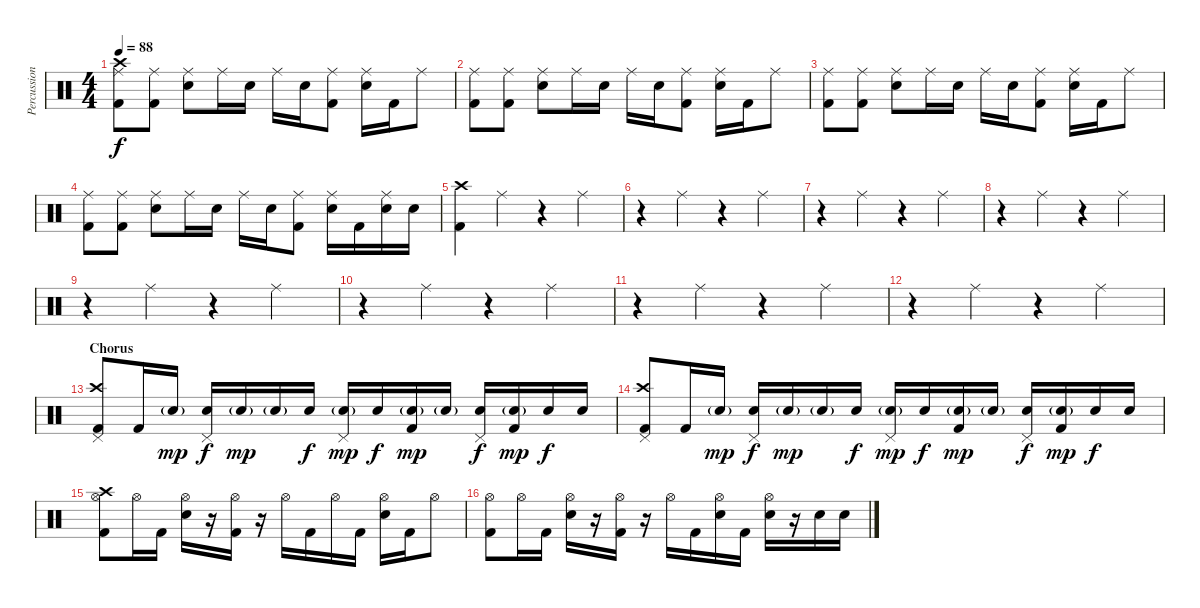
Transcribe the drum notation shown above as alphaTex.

\track ("Percussion" "Percussion") {instrument percussion}
\staff {score}
\articulation defaults
\ts (4 4)
\tempo 88
\clef neutral
\ks c
("Kick (hit) 2" "Ride (middle)" "Crash high (hit)").8{dy f} ("Kick (hit) 2" "Ride (middle)").8 ("Electric Snare (hit)" "Ride (middle)").8 "Ride (middle)".16 "Electric Snare (hit)".16 "Ride (middle)".16 "Electric Snare (hit)".16 ("Kick (hit) 2" "Ride (middle)").8 ("Electric Snare (hit)" "Ride (middle)").16 "Kick (hit) 2".16 "Ride (middle)".8 |
("Kick (hit) 2" "Ride (middle)").8 ("Kick (hit) 2" "Ride (middle)").8 ("Electric Snare (hit)" "Ride (middle)").8 "Ride (middle)".16 "Electric Snare (hit)".16 "Ride (middle)".16 "Electric Snare (hit)".16 ("Kick (hit) 2" "Ride (middle)").8 ("Electric Snare (hit)" "Ride (middle)").16 "Kick (hit) 2".16 "Ride (middle)".8 |
("Kick (hit) 2" "Ride (middle)").8 ("Kick (hit) 2" "Ride (middle)").8 ("Electric Snare (hit)" "Ride (middle)").8 "Ride (middle)".16 "Electric Snare (hit)".16 "Ride (middle)".16 "Electric Snare (hit)".16 ("Kick (hit) 2" "Ride (middle)").8 ("Electric Snare (hit)" "Ride (middle)").16 "Kick (hit) 2".16 "Ride (middle)".8 |
("Kick (hit) 2" "Ride (middle)").8 ("Kick (hit) 2" "Ride (middle)").8 ("Electric Snare (hit)" "Ride (middle)").8 "Ride (middle)".16 "Electric Snare (hit)".16 "Ride (middle)".16 "Electric Snare (hit)".16 ("Kick (hit) 2" "Ride (middle)").8 ("Electric Snare (hit)" "Ride (middle)").16 "Kick (hit) 2".16 ("Electric Snare (hit)" "Ride (middle)").16 "Electric Snare (hit)".16 |
("Kick (hit) 2" "Crash high (hit)").4 "Ride (middle)".4 r.4 "Ride (middle)".4 |
r.4 "Ride (middle)".4 r.4 "Ride (middle)".4 |
r.4 "Ride (middle)".4 r.4 "Ride (middle)".4 |
r.4 "Ride (middle)".4 r.4 "Ride (middle)".4 |
r.4 "Ride (middle)".4 r.4 "Ride (middle)".4 |
r.4 "Ride (middle)".4 r.4 "Ride (middle)".4 |
r.4 "Ride (middle)".4 r.4 "Ride (middle)".4 |
r.4 "Ride (middle)".4 r.4 "Ride (middle)".4 |
\section ("" "Chorus")
("Kick (hit) 2" "Pedal Hi-Hat (hit)" "Crash high (hit)").8 "Kick (hit) 2".16 "Electric Snare (hit)"{g}.16{dy mp} ("Electric Snare (hit)" "Pedal Hi-Hat (hit)").16{dy f} "Electric Snare (hit)"{g}.16{dy mp} "Electric Snare (hit)"{g}.16 "Electric Snare (hit)".16{dy f} ("Electric Snare (hit)"{g} "Pedal Hi-Hat (hit)").16{dy mp} "Electric Snare (hit)".16{dy f} ("Kick (hit) 2" "Electric Snare (hit)"{g}).16{dy mp} "Electric Snare (hit)"{g}.16 ("Electric Snare (hit)" "Pedal Hi-Hat (hit)").16{dy f} ("Kick (hit) 2" "Electric Snare (hit)"{g}).16{dy mp} "Electric Snare (hit)".16{dy f} "Electric Snare (hit)".16 |
("Kick (hit) 2" "Pedal Hi-Hat (hit)" "Crash high (hit)").8 "Kick (hit) 2".16 "Electric Snare (hit)"{g}.16{dy mp} ("Electric Snare (hit)" "Pedal Hi-Hat (hit)").16{dy f} "Electric Snare (hit)"{g}.16{dy mp} "Electric Snare (hit)"{g}.16 "Electric Snare (hit)".16{dy f} ("Electric Snare (hit)"{g} "Pedal Hi-Hat (hit)").16{dy mp} "Electric Snare (hit)".16{dy f} ("Kick (hit) 2" "Electric Snare (hit)"{g}).16{dy mp} "Electric Snare (hit)"{g}.16 ("Electric Snare (hit)" "Pedal Hi-Hat (hit)").16{dy f} ("Kick (hit) 2" "Electric Snare (hit)"{g}).16{dy mp} "Electric Snare (hit)".16{dy f} "Electric Snare (hit)".16 |
("Kick (hit) 2" "Hi-Hat (open)" "Crash high (hit)").8 "Hi-Hat (open)".16 "Kick (hit) 2".16 ("Electric Snare (hit)" "Hi-Hat (open)").16 r.16 ("Kick (hit) 2" "Hi-Hat (open)").16 r.16 "Hi-Hat (open)".16 "Kick (hit) 2".16 "Hi-Hat (open)".16 "Kick (hit) 2".16 ("Electric Snare (hit)" "Hi-Hat (open)").16 "Kick (hit) 2".16 "Hi-Hat (open)".8 |
("Kick (hit) 2" "Hi-Hat (open)").8 "Hi-Hat (open)".16 "Kick (hit) 2".16 ("Electric Snare (hit)" "Hi-Hat (open)").16 r.16 ("Kick (hit) 2" "Hi-Hat (open)").16 r.16 "Hi-Hat (open)".16 "Kick (hit) 2".16 ("Electric Snare (hit)" "Hi-Hat (open)").16 "Kick (hit) 2".16 ("Electric Snare (hit)" "Hi-Hat (open)").16 r.16 "Electric Snare (hit)".16 "Electric Snare (hit)".16
